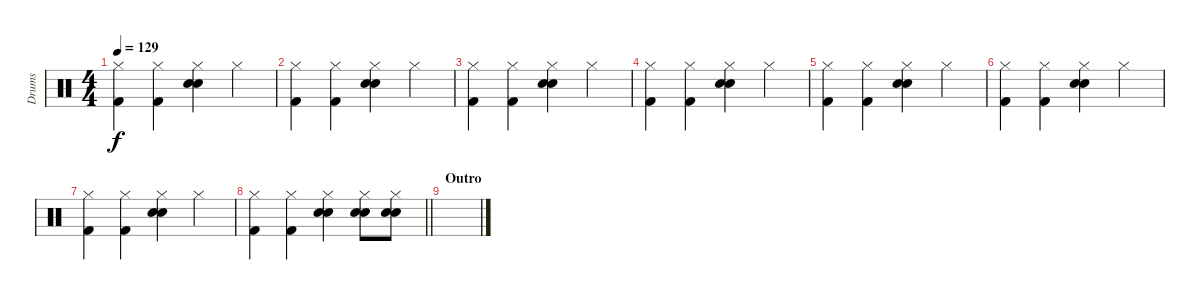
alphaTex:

\track ("Drums" "Drums") {instrument percussion}
\staff {score}
\articulation defaults
\ts (4 4)
\tempo 129
\clef neutral
\ks c
("Kick (hit) 2" "Hi-Hat (closed)").4{dy f} ("Kick (hit) 2" "Hi-Hat (closed)").4 ("Snare (hit) 2" "Electric Snare (hit)" "Hi-Hat (closed)").4 "Hi-Hat (closed)".4 |
("Kick (hit) 2" "Hi-Hat (closed)").4 ("Kick (hit) 2" "Hi-Hat (closed)").4 ("Snare (hit) 2" "Electric Snare (hit)" "Hi-Hat (closed)").4 "Hi-Hat (closed)".4 |
("Kick (hit) 2" "Hi-Hat (closed)").4 ("Kick (hit) 2" "Hi-Hat (closed)").4 ("Snare (hit) 2" "Electric Snare (hit)" "Hi-Hat (closed)").4 "Hi-Hat (closed)".4 |
("Kick (hit) 2" "Hi-Hat (closed)").4 ("Kick (hit) 2" "Hi-Hat (closed)").4 ("Snare (hit) 2" "Electric Snare (hit)" "Hi-Hat (closed)").4 "Hi-Hat (closed)".4 |
("Kick (hit) 2" "Hi-Hat (closed)").4 ("Kick (hit) 2" "Hi-Hat (closed)").4 ("Snare (hit) 2" "Electric Snare (hit)" "Hi-Hat (closed)").4 "Hi-Hat (closed)".4 |
("Kick (hit) 2" "Hi-Hat (closed)").4 ("Kick (hit) 2" "Hi-Hat (closed)").4 ("Snare (hit) 2" "Electric Snare (hit)" "Hi-Hat (closed)").4 "Hi-Hat (closed)".4 |
("Kick (hit) 2" "Hi-Hat (closed)").4 ("Kick (hit) 2" "Hi-Hat (closed)").4 ("Snare (hit) 2" "Electric Snare (hit)" "Hi-Hat (closed)").4 "Hi-Hat (closed)".4 |
\barLineRight lightlight
("Kick (hit) 2" "Hi-Hat (closed)").4 ("Kick (hit) 2" "Hi-Hat (closed)").4 ("Snare (hit) 2" "Electric Snare (hit)" "Hi-Hat (closed)").4 ("Electric Snare (hit)" "Snare (hit) 2" "Hi-Hat (closed)").8 ("Electric Snare (hit)" "Snare (hit) 2" "Hi-Hat (closed)").8 |
\section ("" "Outro")
